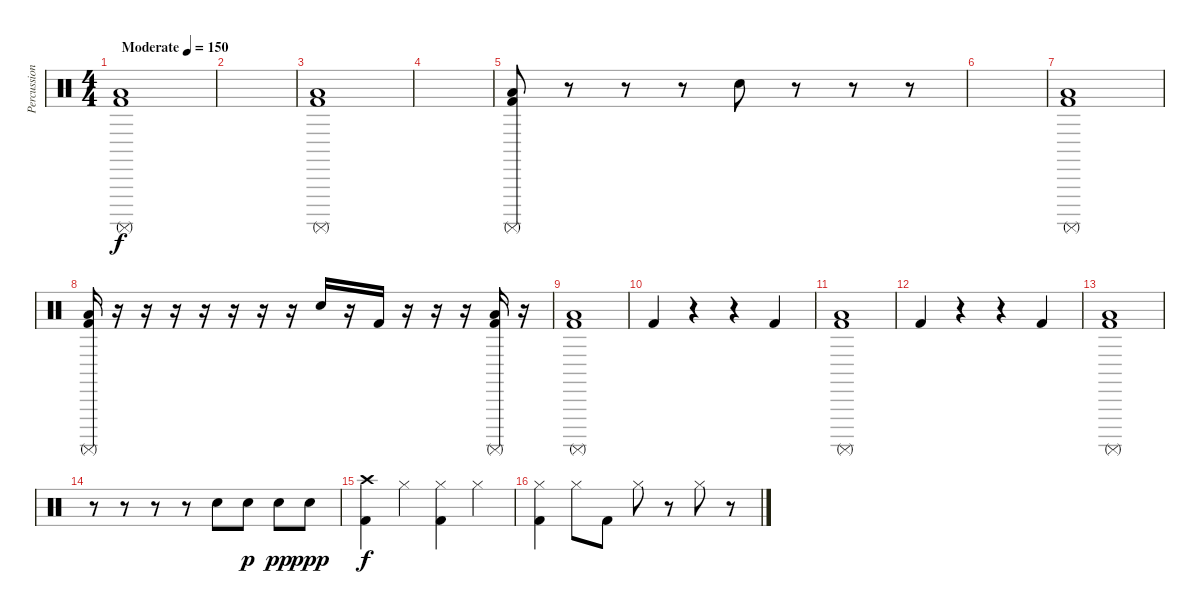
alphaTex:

\track ("Percussion" "Percussion") {instrument percussion}
\staff {score}
\articulation defaults
\ts (4 4)
\tempo (150 "Moderate")
\clef neutral
\ks c
("Low Floor Tom (hit)" "Surdo (mute)" "Kick (hit) 2").1{dy f} |
|
("Low Floor Tom (hit)" "Surdo (mute)" "Kick (hit) 2").1 |
|
("Low Floor Tom (hit)" "Surdo (mute)" "Kick (hit) 2").8 r.8 r.8 r.8 "Snare (hit) 2".8 r.8 r.8 r.8 |
|
("Low Floor Tom (hit)" "Surdo (mute)" "Kick (hit) 2").1 |
("Low Floor Tom (hit)" "Surdo (mute)" "Kick (hit) 2").16 r.16 r.16 r.16 r.16 r.16 r.16 r.16 "Snare (hit) 2".16 r.16 "Kick (hit) 2".16 r.16 r.16 r.16 ("Low Floor Tom (hit)" "Surdo (mute)" "Kick (hit) 2").16 r.16 |
("Low Floor Tom (hit)" "Surdo (mute)" "Kick (hit) 2").1 |
"Kick (hit) 2".4 r.4 r.4 "Kick (hit) 2".4 |
("Low Floor Tom (hit)" "Surdo (mute)" "Kick (hit) 2").1 |
"Kick (hit) 2".4 r.4 r.4 "Kick (hit) 2".4 |
("Low Floor Tom (hit)" "Surdo (mute)" "Kick (hit) 2").1 |
r.8 r.8 r.8 r.8 "Snare (hit) 2".8 "Snare (hit) 2".8{dy p} "Snare (hit) 2".8{dy pp} "Snare (hit) 2".8{dy ppp} |
("Crash high (hit)" "Kick (hit) 2").4{dy f} "Hi-Hat (closed)".4 ("Hi-Hat (closed)" "Kick (hit) 2").4 "Hi-Hat (closed)".4 |
("Hi-Hat (closed)" "Kick (hit) 2").4 "Hi-Hat (closed)".8 "Kick (hit) 2".8 "Hi-Hat (closed)".8 r.8 "Hi-Hat (closed)".8 r.8
